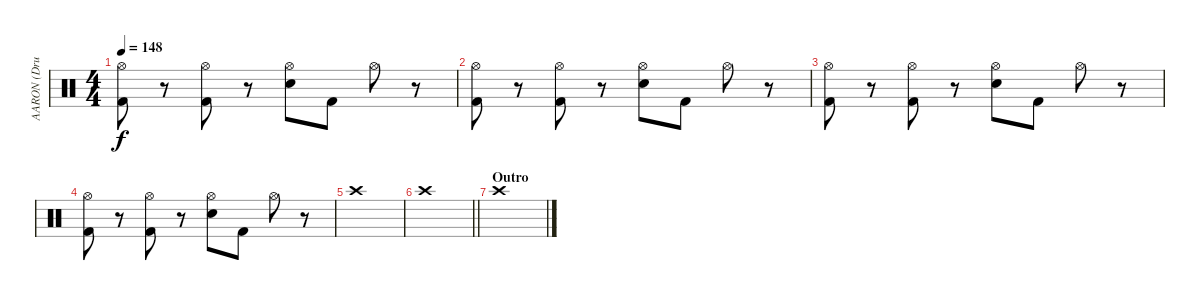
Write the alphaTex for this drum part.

\track ("AARON (Drums)" "AARON (Dru") {instrument percussion}
\staff {score}
\articulation defaults
\ts (4 4)
\tempo 148
\clef neutral
\ks c
("Hi-Hat (open)" "Kick (hit) 2").8{dy f} r.8 ("Hi-Hat (open)" "Kick (hit) 2").8 r.8 ("Hi-Hat (open)" "Electric Snare (hit)").8 "Kick (hit) 2".8 "Hi-Hat (open)".8 r.8 |
("Hi-Hat (open)" "Kick (hit) 2").8 r.8 ("Hi-Hat (open)" "Kick (hit) 2").8 r.8 ("Hi-Hat (open)" "Electric Snare (hit)").8 "Kick (hit) 2".8 "Hi-Hat (open)".8 r.8 |
("Hi-Hat (open)" "Kick (hit) 2").8 r.8 ("Hi-Hat (open)" "Kick (hit) 2").8 r.8 ("Hi-Hat (open)" "Electric Snare (hit)").8 "Kick (hit) 2".8 "Hi-Hat (open)".8 r.8 |
("Hi-Hat (open)" "Kick (hit) 2").8 r.8 ("Hi-Hat (open)" "Kick (hit) 2").8 r.8 ("Hi-Hat (open)" "Electric Snare (hit)").8 "Kick (hit) 2".8 "Hi-Hat (open)".8 r.8 |
"Crash high (hit)".1 |
\barLineRight lightlight "Crash high (hit)".1
|
\section ("" "Outro")
"Crash high (hit)".1
